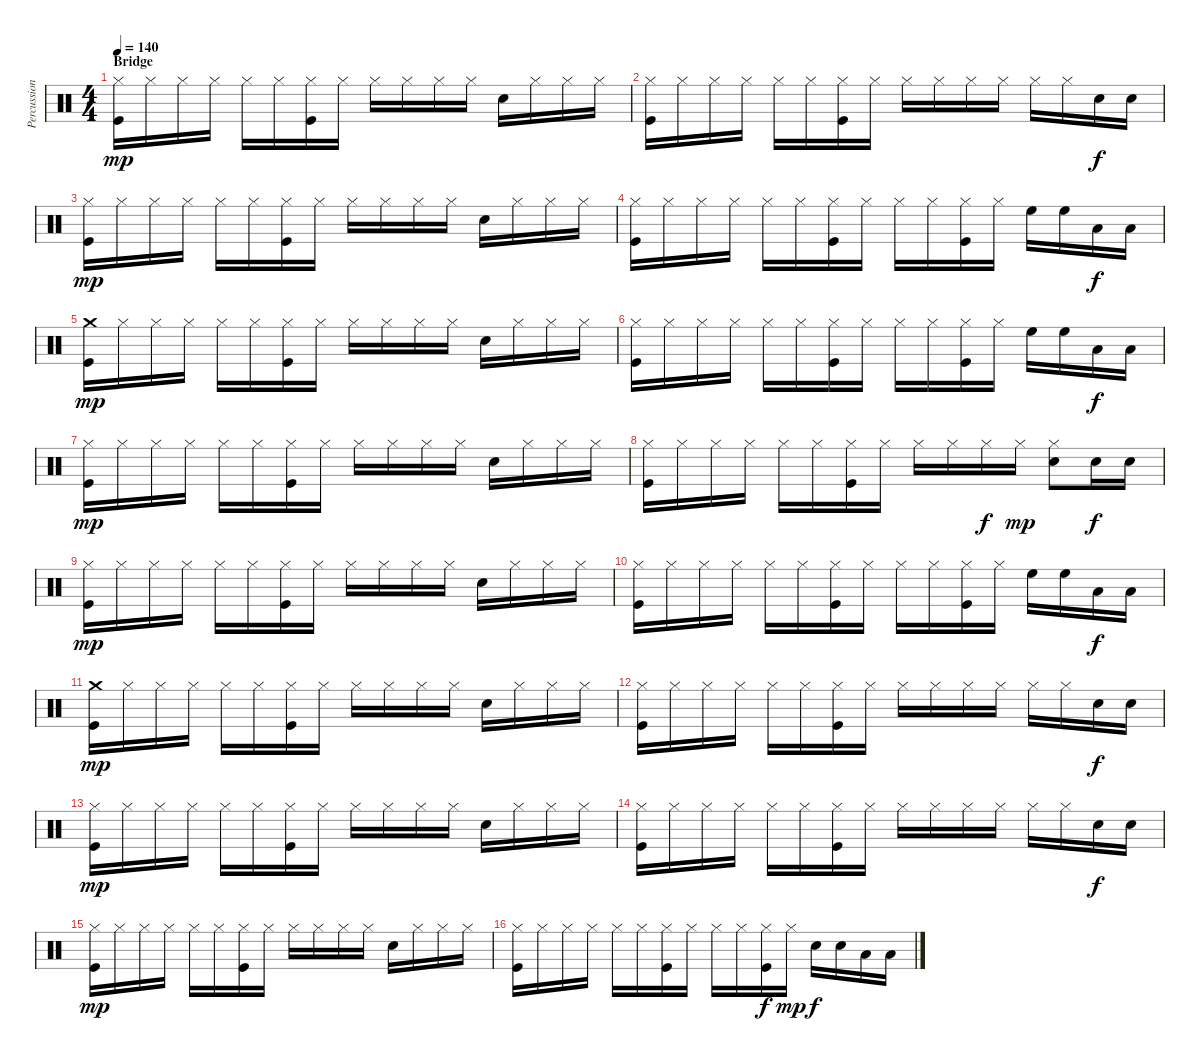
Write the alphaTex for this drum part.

\track ("Percussion" "Percussion") {instrument percussion}
\staff {score}
\articulation defaults
\ts (4 4)
\section ("" "Bridge")
\tempo 140
\clef neutral
\ks c
("Hi-Hat (closed)" "Kick (hit)").16{dy mp} "Hi-Hat (closed)".16 "Hi-Hat (closed)".16 "Hi-Hat (closed)".16 "Hi-Hat (closed)".16 "Hi-Hat (closed)".16 ("Hi-Hat (closed)" "Kick (hit)").16 "Hi-Hat (closed)".16 "Hi-Hat (closed)".16 "Hi-Hat (closed)".16 "Hi-Hat (closed)".16 "Hi-Hat (closed)".16 "Snare (hit) 2".16 "Hi-Hat (closed)".16 "Hi-Hat (closed)".16 "Hi-Hat (closed)".16 |
("Hi-Hat (closed)" "Kick (hit)").16 "Hi-Hat (closed)".16 "Hi-Hat (closed)".16 "Hi-Hat (closed)".16 "Hi-Hat (closed)".16 "Hi-Hat (closed)".16 ("Hi-Hat (closed)" "Kick (hit)").16 "Hi-Hat (closed)".16 "Hi-Hat (closed)".16 "Hi-Hat (closed)".16 "Hi-Hat (closed)".16 "Hi-Hat (closed)".16 "Hi-Hat (closed)".16 "Hi-Hat (closed)".16 "Snare (hit) 2".16{dy f} "Snare (hit) 2".16 |
("Hi-Hat (closed)" "Kick (hit)").16{dy mp} "Hi-Hat (closed)".16 "Hi-Hat (closed)".16 "Hi-Hat (closed)".16 "Hi-Hat (closed)".16 "Hi-Hat (closed)".16 ("Hi-Hat (closed)" "Kick (hit)").16 "Hi-Hat (closed)".16 "Hi-Hat (closed)".16 "Hi-Hat (closed)".16 "Hi-Hat (closed)".16 "Hi-Hat (closed)".16 "Snare (hit) 2".16 "Hi-Hat (closed)".16 "Hi-Hat (closed)".16 "Hi-Hat (closed)".16 |
("Hi-Hat (closed)" "Kick (hit)").16 "Hi-Hat (closed)".16 "Hi-Hat (closed)".16 "Hi-Hat (closed)".16 "Hi-Hat (closed)".16 "Hi-Hat (closed)".16 ("Hi-Hat (closed)" "Kick (hit)").16 "Hi-Hat (closed)".16 "Hi-Hat (closed)".16 "Hi-Hat (closed)".16 ("Hi-Hat (closed)" "Kick (hit)").16 "Hi-Hat (closed)".16 "High Floor Tom (hit)".16 "High Floor Tom (hit)".16 "Low Tom (hit)".16{dy f} "Low Tom (hit)".16 |
("Crash medium (hit)" "Kick (hit)").16{dy mp} "Hi-Hat (closed)".16 "Hi-Hat (closed)".16 "Hi-Hat (closed)".16 "Hi-Hat (closed)".16 "Hi-Hat (closed)".16 ("Hi-Hat (closed)" "Kick (hit)").16 "Hi-Hat (closed)".16 "Hi-Hat (closed)".16 "Hi-Hat (closed)".16 "Hi-Hat (closed)".16 "Hi-Hat (closed)".16 "Snare (hit) 2".16 "Hi-Hat (closed)".16 "Hi-Hat (closed)".16 "Hi-Hat (closed)".16 |
("Hi-Hat (closed)" "Kick (hit)").16 "Hi-Hat (closed)".16 "Hi-Hat (closed)".16 "Hi-Hat (closed)".16 "Hi-Hat (closed)".16 "Hi-Hat (closed)".16 ("Hi-Hat (closed)" "Kick (hit)").16 "Hi-Hat (closed)".16 "Hi-Hat (closed)".16 "Hi-Hat (closed)".16 ("Hi-Hat (closed)" "Kick (hit)").16 "Hi-Hat (closed)".16 "High Floor Tom (hit)".16 "High Floor Tom (hit)".16 "Low Tom (hit)".16{dy f} "Low Tom (hit)".16 |
("Hi-Hat (closed)" "Kick (hit)").16{dy mp} "Hi-Hat (closed)".16 "Hi-Hat (closed)".16 "Hi-Hat (closed)".16 "Hi-Hat (closed)".16 "Hi-Hat (closed)".16 ("Hi-Hat (closed)" "Kick (hit)").16 "Hi-Hat (closed)".16 "Hi-Hat (closed)".16 "Hi-Hat (closed)".16 "Hi-Hat (closed)".16 "Hi-Hat (closed)".16 "Snare (hit) 2".16 "Hi-Hat (closed)".16 "Hi-Hat (closed)".16 "Hi-Hat (closed)".16 |
("Hi-Hat (closed)" "Kick (hit)").16 "Hi-Hat (closed)".16 "Hi-Hat (closed)".16 "Hi-Hat (closed)".16 "Hi-Hat (closed)".16 "Hi-Hat (closed)".16 ("Hi-Hat (closed)" "Kick (hit)").16 "Hi-Hat (closed)".16 "Hi-Hat (closed)".16 "Hi-Hat (closed)".16 "Hi-Hat (closed)".16{dy f} "Hi-Hat (closed)".16{dy mp} ("Hi-Hat (closed)" "Snare (hit) 2").8 "Snare (hit) 2".16{dy f} "Snare (hit) 2".16 |
("Hi-Hat (closed)" "Kick (hit)").16{dy mp} "Hi-Hat (closed)".16 "Hi-Hat (closed)".16 "Hi-Hat (closed)".16 "Hi-Hat (closed)".16 "Hi-Hat (closed)".16 ("Hi-Hat (closed)" "Kick (hit)").16 "Hi-Hat (closed)".16 "Hi-Hat (closed)".16 "Hi-Hat (closed)".16 "Hi-Hat (closed)".16 "Hi-Hat (closed)".16 "Snare (hit) 2".16 "Hi-Hat (closed)".16 "Hi-Hat (closed)".16 "Hi-Hat (closed)".16 |
("Hi-Hat (closed)" "Kick (hit)").16 "Hi-Hat (closed)".16 "Hi-Hat (closed)".16 "Hi-Hat (closed)".16 "Hi-Hat (closed)".16 "Hi-Hat (closed)".16 ("Hi-Hat (closed)" "Kick (hit)").16 "Hi-Hat (closed)".16 "Hi-Hat (closed)".16 "Hi-Hat (closed)".16 ("Hi-Hat (closed)" "Kick (hit)").16 "Hi-Hat (closed)".16 "High Floor Tom (hit)".16 "High Floor Tom (hit)".16 "Low Tom (hit)".16{dy f} "Low Tom (hit)".16 |
("Crash medium (hit)" "Kick (hit)").16{dy mp} "Hi-Hat (closed)".16 "Hi-Hat (closed)".16 "Hi-Hat (closed)".16 "Hi-Hat (closed)".16 "Hi-Hat (closed)".16 ("Hi-Hat (closed)" "Kick (hit)").16 "Hi-Hat (closed)".16 "Hi-Hat (closed)".16 "Hi-Hat (closed)".16 "Hi-Hat (closed)".16 "Hi-Hat (closed)".16 "Snare (hit) 2".16 "Hi-Hat (closed)".16 "Hi-Hat (closed)".16 "Hi-Hat (closed)".16 |
("Hi-Hat (closed)" "Kick (hit)").16 "Hi-Hat (closed)".16 "Hi-Hat (closed)".16 "Hi-Hat (closed)".16 "Hi-Hat (closed)".16 "Hi-Hat (closed)".16 ("Hi-Hat (closed)" "Kick (hit)").16 "Hi-Hat (closed)".16 "Hi-Hat (closed)".16 "Hi-Hat (closed)".16 "Hi-Hat (closed)".16 "Hi-Hat (closed)".16 "Hi-Hat (closed)".16 "Hi-Hat (closed)".16 "Snare (hit) 2".16{dy f} "Snare (hit) 2".16 |
("Hi-Hat (closed)" "Kick (hit)").16{dy mp} "Hi-Hat (closed)".16 "Hi-Hat (closed)".16 "Hi-Hat (closed)".16 "Hi-Hat (closed)".16 "Hi-Hat (closed)".16 ("Hi-Hat (closed)" "Kick (hit)").16 "Hi-Hat (closed)".16 "Hi-Hat (closed)".16 "Hi-Hat (closed)".16 "Hi-Hat (closed)".16 "Hi-Hat (closed)".16 "Snare (hit) 2".16 "Hi-Hat (closed)".16 "Hi-Hat (closed)".16 "Hi-Hat (closed)".16 |
("Hi-Hat (closed)" "Kick (hit)").16 "Hi-Hat (closed)".16 "Hi-Hat (closed)".16 "Hi-Hat (closed)".16 "Hi-Hat (closed)".16 "Hi-Hat (closed)".16 ("Hi-Hat (closed)" "Kick (hit)").16 "Hi-Hat (closed)".16 "Hi-Hat (closed)".16 "Hi-Hat (closed)".16 "Hi-Hat (closed)".16 "Hi-Hat (closed)".16 "Hi-Hat (closed)".16 "Hi-Hat (closed)".16 "Snare (hit) 2".16{dy f} "Snare (hit) 2".16 |
("Hi-Hat (closed)" "Kick (hit)").16{dy mp} "Hi-Hat (closed)".16 "Hi-Hat (closed)".16 "Hi-Hat (closed)".16 "Hi-Hat (closed)".16 "Hi-Hat (closed)".16 ("Hi-Hat (closed)" "Kick (hit)").16 "Hi-Hat (closed)".16 "Hi-Hat (closed)".16 "Hi-Hat (closed)".16 "Hi-Hat (closed)".16 "Hi-Hat (closed)".16 "Snare (hit) 2".16 "Hi-Hat (closed)".16 "Hi-Hat (closed)".16 "Hi-Hat (closed)".16 |
("Hi-Hat (closed)" "Kick (hit)").16 "Hi-Hat (closed)".16 "Hi-Hat (closed)".16 "Hi-Hat (closed)".16 "Hi-Hat (closed)".16 "Hi-Hat (closed)".16 ("Hi-Hat (closed)" "Kick (hit)").16 "Hi-Hat (closed)".16 "Hi-Hat (closed)".16 "Hi-Hat (closed)".16 ("Hi-Hat (closed)" "Kick (hit)").16{dy f} "Hi-Hat (closed)".16{dy mp} "Snare (hit) 2".16{dy f} "Snare (hit) 2".16 "Low Tom (hit)".16 "Low Tom (hit)".16
